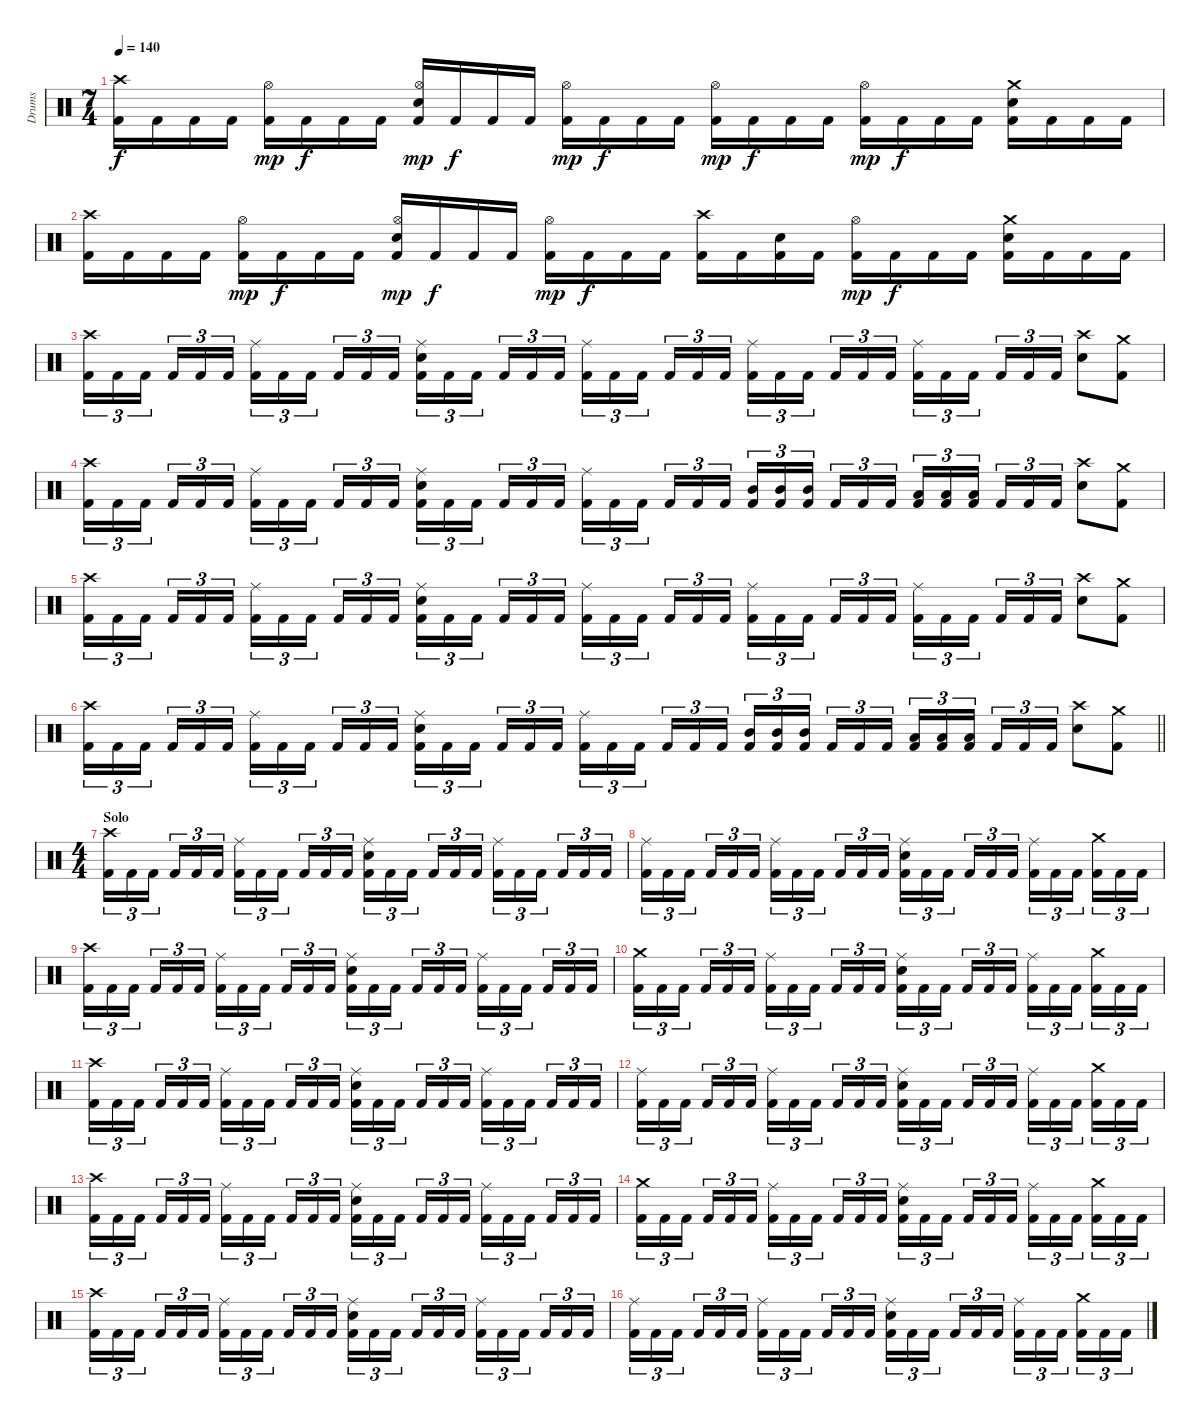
\track ("Drums" "Drums") {instrument percussion}
\staff {score}
\articulation defaults
\ts (7 4)
\tempo 140
\clef neutral
\ks c
("Crash high (hit)" "Kick (hit) 2").16{dy f} "Kick (hit) 2".16 "Kick (hit) 2".16 "Kick (hit) 2".16 ("Hi-Hat (open)" "Kick (hit) 2").16{dy mp} "Kick (hit) 2".16{dy f} "Kick (hit) 2".16 "Kick (hit) 2".16 ("Hi-Hat (open)" "Snare (hit) 2" "Kick (hit) 2").16{dy mp} "Kick (hit) 2".16{dy f} "Kick (hit) 2".16 "Kick (hit) 2".16 ("Hi-Hat (open)" "Kick (hit) 2").16{dy mp} "Kick (hit) 2".16{dy f} "Kick (hit) 2".16 "Kick (hit) 2".16 ("Hi-Hat (open)" "Kick (hit) 2").16{dy mp} "Kick (hit) 2".16{dy f} "Kick (hit) 2".16 "Kick (hit) 2".16 ("Hi-Hat (open)" "Kick (hit) 2").16{dy mp} "Kick (hit) 2".16{dy f} "Kick (hit) 2".16 "Kick (hit) 2".16 ("Crash medium (hit)" "Snare (hit) 2" "Kick (hit) 2").16 "Kick (hit) 2".16 "Kick (hit) 2".16 "Kick (hit) 2".16 |
("Crash high (hit)" "Kick (hit) 2").16 "Kick (hit) 2".16 "Kick (hit) 2".16 "Kick (hit) 2".16 ("Hi-Hat (open)" "Kick (hit) 2").16{dy mp} "Kick (hit) 2".16{dy f} "Kick (hit) 2".16 "Kick (hit) 2".16 ("Hi-Hat (open)" "Snare (hit) 2" "Kick (hit) 2").16{dy mp} "Kick (hit) 2".16{dy f} "Kick (hit) 2".16 "Kick (hit) 2".16 ("Hi-Hat (open)" "Kick (hit) 2").16{dy mp} "Kick (hit) 2".16{dy f} "Kick (hit) 2".16 "Kick (hit) 2".16 ("Crash high (hit)" "Kick (hit) 2").16 "Kick (hit) 2".16 ("Snare (hit) 2" "Kick (hit) 2").16 "Kick (hit) 2".16 ("Hi-Hat (open)" "Kick (hit) 2").16{dy mp} "Kick (hit) 2".16{dy f} "Kick (hit) 2".16 "Kick (hit) 2".16 ("Crash medium (hit)" "Snare (hit) 2" "Kick (hit) 2").16 "Kick (hit) 2".16 "Kick (hit) 2".16 "Kick (hit) 2".16 |
("Crash high (hit)" "Kick (hit) 2").16{tu (3 2)} "Kick (hit) 2".16{tu (3 2)} "Kick (hit) 2".16{tu (3 2) beam splitsecondary} "Kick (hit) 2".16{tu (3 2)} "Kick (hit) 2".16{tu (3 2)} "Kick (hit) 2".16{tu (3 2)} ("Ride (middle)" "Kick (hit) 2").16{tu (3 2)} "Kick (hit) 2".16{tu (3 2)} "Kick (hit) 2".16{tu (3 2) beam splitsecondary} "Kick (hit) 2".16{tu (3 2)} "Kick (hit) 2".16{tu (3 2)} "Kick (hit) 2".16{tu (3 2)} ("Ride (middle)" "Snare (hit) 2" "Kick (hit) 2").16{tu (3 2)} "Kick (hit) 2".16{tu (3 2)} "Kick (hit) 2".16{tu (3 2) beam splitsecondary} "Kick (hit) 2".16{tu (3 2)} "Kick (hit) 2".16{tu (3 2)} "Kick (hit) 2".16{tu (3 2)} ("Ride (middle)" "Kick (hit) 2").16{tu (3 2)} "Kick (hit) 2".16{tu (3 2)} "Kick (hit) 2".16{tu (3 2) beam splitsecondary} "Kick (hit) 2".16{tu (3 2)} "Kick (hit) 2".16{tu (3 2)} "Kick (hit) 2".16{tu (3 2)} ("Ride (middle)" "Kick (hit) 2").16{tu (3 2)} "Kick (hit) 2".16{tu (3 2)} "Kick (hit) 2".16{tu (3 2) beam splitsecondary} "Kick (hit) 2".16{tu (3 2)} "Kick (hit) 2".16{tu (3 2)} "Kick (hit) 2".16{tu (3 2)} ("Ride (middle)" "Kick (hit) 2").16{tu (3 2)} "Kick (hit) 2".16{tu (3 2)} "Kick (hit) 2".16{tu (3 2) beam splitsecondary} "Kick (hit) 2".16{tu (3 2)} "Kick (hit) 2".16{tu (3 2)} "Kick (hit) 2".16{tu (3 2)} ("Crash high (hit)" "Snare (hit) 2").8 ("Crash medium (hit)" "Kick (hit) 2").8 |
("Crash high (hit)" "Kick (hit) 2").16{tu (3 2)} "Kick (hit) 2".16{tu (3 2)} "Kick (hit) 2".16{tu (3 2) beam splitsecondary} "Kick (hit) 2".16{tu (3 2)} "Kick (hit) 2".16{tu (3 2)} "Kick (hit) 2".16{tu (3 2)} ("Ride (middle)" "Kick (hit) 2").16{tu (3 2)} "Kick (hit) 2".16{tu (3 2)} "Kick (hit) 2".16{tu (3 2) beam splitsecondary} "Kick (hit) 2".16{tu (3 2)} "Kick (hit) 2".16{tu (3 2)} "Kick (hit) 2".16{tu (3 2)} ("Ride (middle)" "Snare (hit) 2" "Kick (hit) 2").16{tu (3 2)} "Kick (hit) 2".16{tu (3 2)} "Kick (hit) 2".16{tu (3 2) beam splitsecondary} "Kick (hit) 2".16{tu (3 2)} "Kick (hit) 2".16{tu (3 2)} "Kick (hit) 2".16{tu (3 2)} ("Ride (middle)" "Kick (hit) 2").16{tu (3 2)} "Kick (hit) 2".16{tu (3 2)} "Kick (hit) 2".16{tu (3 2) beam splitsecondary} "Kick (hit) 2".16{tu (3 2)} "Kick (hit) 2".16{tu (3 2)} "Kick (hit) 2".16{tu (3 2)} ("Mid Tom (hit)" "Kick (hit) 2").16{tu (3 2)} ("Mid Tom (hit)" "Kick (hit) 2").16{tu (3 2)} ("Mid Tom (hit)" "Kick (hit) 2").16{tu (3 2) beam splitsecondary} "Kick (hit) 2".16{tu (3 2)} "Kick (hit) 2".16{tu (3 2)} "Kick (hit) 2".16{tu (3 2)} ("Low Tom (hit)" "Kick (hit) 2").16{tu (3 2)} ("Low Tom (hit)" "Kick (hit) 2").16{tu (3 2)} ("Low Tom (hit)" "Kick (hit) 2").16{tu (3 2) beam splitsecondary} "Kick (hit) 2".16{tu (3 2)} "Kick (hit) 2".16{tu (3 2)} "Kick (hit) 2".16{tu (3 2)} ("Crash high (hit)" "Snare (hit) 2").8 ("Crash medium (hit)" "Kick (hit) 2").8 |
("Crash high (hit)" "Kick (hit) 2").16{tu (3 2)} "Kick (hit) 2".16{tu (3 2)} "Kick (hit) 2".16{tu (3 2) beam splitsecondary} "Kick (hit) 2".16{tu (3 2)} "Kick (hit) 2".16{tu (3 2)} "Kick (hit) 2".16{tu (3 2)} ("Ride (middle)" "Kick (hit) 2").16{tu (3 2)} "Kick (hit) 2".16{tu (3 2)} "Kick (hit) 2".16{tu (3 2) beam splitsecondary} "Kick (hit) 2".16{tu (3 2)} "Kick (hit) 2".16{tu (3 2)} "Kick (hit) 2".16{tu (3 2)} ("Ride (middle)" "Snare (hit) 2" "Kick (hit) 2").16{tu (3 2)} "Kick (hit) 2".16{tu (3 2)} "Kick (hit) 2".16{tu (3 2) beam splitsecondary} "Kick (hit) 2".16{tu (3 2)} "Kick (hit) 2".16{tu (3 2)} "Kick (hit) 2".16{tu (3 2)} ("Ride (middle)" "Kick (hit) 2").16{tu (3 2)} "Kick (hit) 2".16{tu (3 2)} "Kick (hit) 2".16{tu (3 2) beam splitsecondary} "Kick (hit) 2".16{tu (3 2)} "Kick (hit) 2".16{tu (3 2)} "Kick (hit) 2".16{tu (3 2)} ("Ride (middle)" "Kick (hit) 2").16{tu (3 2)} "Kick (hit) 2".16{tu (3 2)} "Kick (hit) 2".16{tu (3 2) beam splitsecondary} "Kick (hit) 2".16{tu (3 2)} "Kick (hit) 2".16{tu (3 2)} "Kick (hit) 2".16{tu (3 2)} ("Ride (middle)" "Kick (hit) 2").16{tu (3 2)} "Kick (hit) 2".16{tu (3 2)} "Kick (hit) 2".16{tu (3 2) beam splitsecondary} "Kick (hit) 2".16{tu (3 2)} "Kick (hit) 2".16{tu (3 2)} "Kick (hit) 2".16{tu (3 2)} ("Crash high (hit)" "Snare (hit) 2").8 ("Crash medium (hit)" "Kick (hit) 2").8 |
\barLineRight lightlight
("Crash high (hit)" "Kick (hit) 2").16{tu (3 2)} "Kick (hit) 2".16{tu (3 2)} "Kick (hit) 2".16{tu (3 2) beam splitsecondary} "Kick (hit) 2".16{tu (3 2)} "Kick (hit) 2".16{tu (3 2)} "Kick (hit) 2".16{tu (3 2)} ("Ride (middle)" "Kick (hit) 2").16{tu (3 2)} "Kick (hit) 2".16{tu (3 2)} "Kick (hit) 2".16{tu (3 2) beam splitsecondary} "Kick (hit) 2".16{tu (3 2)} "Kick (hit) 2".16{tu (3 2)} "Kick (hit) 2".16{tu (3 2)} ("Ride (middle)" "Snare (hit) 2" "Kick (hit) 2").16{tu (3 2)} "Kick (hit) 2".16{tu (3 2)} "Kick (hit) 2".16{tu (3 2) beam splitsecondary} "Kick (hit) 2".16{tu (3 2)} "Kick (hit) 2".16{tu (3 2)} "Kick (hit) 2".16{tu (3 2)} ("Ride (middle)" "Kick (hit) 2").16{tu (3 2)} "Kick (hit) 2".16{tu (3 2)} "Kick (hit) 2".16{tu (3 2) beam splitsecondary} "Kick (hit) 2".16{tu (3 2)} "Kick (hit) 2".16{tu (3 2)} "Kick (hit) 2".16{tu (3 2)} ("Mid Tom (hit)" "Kick (hit) 2").16{tu (3 2)} ("Mid Tom (hit)" "Kick (hit) 2").16{tu (3 2)} ("Mid Tom (hit)" "Kick (hit) 2").16{tu (3 2) beam splitsecondary} "Kick (hit) 2".16{tu (3 2)} "Kick (hit) 2".16{tu (3 2)} "Kick (hit) 2".16{tu (3 2)} ("Low Tom (hit)" "Kick (hit) 2").16{tu (3 2)} ("Low Tom (hit)" "Kick (hit) 2").16{tu (3 2)} ("Low Tom (hit)" "Kick (hit) 2").16{tu (3 2) beam splitsecondary} "Kick (hit) 2".16{tu (3 2)} "Kick (hit) 2".16{tu (3 2)} "Kick (hit) 2".16{tu (3 2)} ("Crash high (hit)" "Snare (hit) 2").8 ("Crash medium (hit)" "Kick (hit) 2").8 |
\ts (4 4)
\section ("" "Solo")
("Crash high (hit)" "Kick (hit) 2").16{tu (3 2)} "Kick (hit) 2".16{tu (3 2)} "Kick (hit) 2".16{tu (3 2) beam splitsecondary} "Kick (hit) 2".16{tu (3 2)} "Kick (hit) 2".16{tu (3 2)} "Kick (hit) 2".16{tu (3 2)} ("Ride (middle)" "Kick (hit) 2").16{tu (3 2)} "Kick (hit) 2".16{tu (3 2)} "Kick (hit) 2".16{tu (3 2) beam splitsecondary} "Kick (hit) 2".16{tu (3 2)} "Kick (hit) 2".16{tu (3 2)} "Kick (hit) 2".16{tu (3 2)} ("Ride (middle)" "Snare (hit) 2" "Kick (hit) 2").16{tu (3 2)} "Kick (hit) 2".16{tu (3 2)} "Kick (hit) 2".16{tu (3 2) beam splitsecondary} "Kick (hit) 2".16{tu (3 2)} "Kick (hit) 2".16{tu (3 2)} "Kick (hit) 2".16{tu (3 2)} ("Ride (middle)" "Kick (hit) 2").16{tu (3 2)} "Kick (hit) 2".16{tu (3 2)} "Kick (hit) 2".16{tu (3 2) beam splitsecondary} "Kick (hit) 2".16{tu (3 2)} "Kick (hit) 2".16{tu (3 2)} "Kick (hit) 2".16{tu (3 2)} |
("Ride (middle)" "Kick (hit) 2").16{tu (3 2)} "Kick (hit) 2".16{tu (3 2)} "Kick (hit) 2".16{tu (3 2) beam splitsecondary} "Kick (hit) 2".16{tu (3 2)} "Kick (hit) 2".16{tu (3 2)} "Kick (hit) 2".16{tu (3 2)} ("Ride (middle)" "Kick (hit) 2").16{tu (3 2)} "Kick (hit) 2".16{tu (3 2)} "Kick (hit) 2".16{tu (3 2) beam splitsecondary} "Kick (hit) 2".16{tu (3 2)} "Kick (hit) 2".16{tu (3 2)} "Kick (hit) 2".16{tu (3 2)} ("Ride (middle)" "Snare (hit) 2" "Kick (hit) 2").16{tu (3 2)} "Kick (hit) 2".16{tu (3 2)} "Kick (hit) 2".16{tu (3 2) beam splitsecondary} "Kick (hit) 2".16{tu (3 2)} "Kick (hit) 2".16{tu (3 2)} "Kick (hit) 2".16{tu (3 2)} ("Ride (middle)" "Kick (hit) 2").16{tu (3 2)} "Kick (hit) 2".16{tu (3 2)} "Kick (hit) 2".16{tu (3 2) beam splitsecondary} ("Crash medium (hit)" "Kick (hit) 2").16{tu (3 2)} "Kick (hit) 2".16{tu (3 2)} "Kick (hit) 2".16{tu (3 2)} |
("Crash high (hit)" "Kick (hit) 2").16{tu (3 2)} "Kick (hit) 2".16{tu (3 2)} "Kick (hit) 2".16{tu (3 2) beam splitsecondary} "Kick (hit) 2".16{tu (3 2)} "Kick (hit) 2".16{tu (3 2)} "Kick (hit) 2".16{tu (3 2)} ("Ride (middle)" "Kick (hit) 2").16{tu (3 2)} "Kick (hit) 2".16{tu (3 2)} "Kick (hit) 2".16{tu (3 2) beam splitsecondary} "Kick (hit) 2".16{tu (3 2)} "Kick (hit) 2".16{tu (3 2)} "Kick (hit) 2".16{tu (3 2)} ("Ride (middle)" "Snare (hit) 2" "Kick (hit) 2").16{tu (3 2)} "Kick (hit) 2".16{tu (3 2)} "Kick (hit) 2".16{tu (3 2) beam splitsecondary} "Kick (hit) 2".16{tu (3 2)} "Kick (hit) 2".16{tu (3 2)} "Kick (hit) 2".16{tu (3 2)} ("Ride (middle)" "Kick (hit) 2").16{tu (3 2)} "Kick (hit) 2".16{tu (3 2)} "Kick (hit) 2".16{tu (3 2) beam splitsecondary} "Kick (hit) 2".16{tu (3 2)} "Kick (hit) 2".16{tu (3 2)} "Kick (hit) 2".16{tu (3 2)} |
("Crash medium (hit)" "Kick (hit) 2").16{tu (3 2)} "Kick (hit) 2".16{tu (3 2)} "Kick (hit) 2".16{tu (3 2) beam splitsecondary} "Kick (hit) 2".16{tu (3 2)} "Kick (hit) 2".16{tu (3 2)} "Kick (hit) 2".16{tu (3 2)} ("Ride (middle)" "Kick (hit) 2").16{tu (3 2)} "Kick (hit) 2".16{tu (3 2)} "Kick (hit) 2".16{tu (3 2) beam splitsecondary} "Kick (hit) 2".16{tu (3 2)} "Kick (hit) 2".16{tu (3 2)} "Kick (hit) 2".16{tu (3 2)} ("Ride (middle)" "Snare (hit) 2" "Kick (hit) 2").16{tu (3 2)} "Kick (hit) 2".16{tu (3 2)} "Kick (hit) 2".16{tu (3 2) beam splitsecondary} "Kick (hit) 2".16{tu (3 2)} "Kick (hit) 2".16{tu (3 2)} "Kick (hit) 2".16{tu (3 2)} ("Ride (middle)" "Kick (hit) 2").16{tu (3 2)} "Kick (hit) 2".16{tu (3 2)} "Kick (hit) 2".16{tu (3 2) beam splitsecondary} ("Crash medium (hit)" "Kick (hit) 2").16{tu (3 2)} "Kick (hit) 2".16{tu (3 2)} "Kick (hit) 2".16{tu (3 2)} |
("Crash high (hit)" "Kick (hit) 2").16{tu (3 2)} "Kick (hit) 2".16{tu (3 2)} "Kick (hit) 2".16{tu (3 2) beam splitsecondary} "Kick (hit) 2".16{tu (3 2)} "Kick (hit) 2".16{tu (3 2)} "Kick (hit) 2".16{tu (3 2)} ("Ride (middle)" "Kick (hit) 2").16{tu (3 2)} "Kick (hit) 2".16{tu (3 2)} "Kick (hit) 2".16{tu (3 2) beam splitsecondary} "Kick (hit) 2".16{tu (3 2)} "Kick (hit) 2".16{tu (3 2)} "Kick (hit) 2".16{tu (3 2)} ("Ride (middle)" "Snare (hit) 2" "Kick (hit) 2").16{tu (3 2)} "Kick (hit) 2".16{tu (3 2)} "Kick (hit) 2".16{tu (3 2) beam splitsecondary} "Kick (hit) 2".16{tu (3 2)} "Kick (hit) 2".16{tu (3 2)} "Kick (hit) 2".16{tu (3 2)} ("Ride (middle)" "Kick (hit) 2").16{tu (3 2)} "Kick (hit) 2".16{tu (3 2)} "Kick (hit) 2".16{tu (3 2) beam splitsecondary} "Kick (hit) 2".16{tu (3 2)} "Kick (hit) 2".16{tu (3 2)} "Kick (hit) 2".16{tu (3 2)} |
("Ride (middle)" "Kick (hit) 2").16{tu (3 2)} "Kick (hit) 2".16{tu (3 2)} "Kick (hit) 2".16{tu (3 2) beam splitsecondary} "Kick (hit) 2".16{tu (3 2)} "Kick (hit) 2".16{tu (3 2)} "Kick (hit) 2".16{tu (3 2)} ("Ride (middle)" "Kick (hit) 2").16{tu (3 2)} "Kick (hit) 2".16{tu (3 2)} "Kick (hit) 2".16{tu (3 2) beam splitsecondary} "Kick (hit) 2".16{tu (3 2)} "Kick (hit) 2".16{tu (3 2)} "Kick (hit) 2".16{tu (3 2)} ("Ride (middle)" "Snare (hit) 2" "Kick (hit) 2").16{tu (3 2)} "Kick (hit) 2".16{tu (3 2)} "Kick (hit) 2".16{tu (3 2) beam splitsecondary} "Kick (hit) 2".16{tu (3 2)} "Kick (hit) 2".16{tu (3 2)} "Kick (hit) 2".16{tu (3 2)} ("Ride (middle)" "Kick (hit) 2").16{tu (3 2)} "Kick (hit) 2".16{tu (3 2)} "Kick (hit) 2".16{tu (3 2) beam splitsecondary} ("Crash medium (hit)" "Kick (hit) 2").16{tu (3 2)} "Kick (hit) 2".16{tu (3 2)} "Kick (hit) 2".16{tu (3 2)} |
("Crash high (hit)" "Kick (hit) 2").16{tu (3 2)} "Kick (hit) 2".16{tu (3 2)} "Kick (hit) 2".16{tu (3 2) beam splitsecondary} "Kick (hit) 2".16{tu (3 2)} "Kick (hit) 2".16{tu (3 2)} "Kick (hit) 2".16{tu (3 2)} ("Ride (middle)" "Kick (hit) 2").16{tu (3 2)} "Kick (hit) 2".16{tu (3 2)} "Kick (hit) 2".16{tu (3 2) beam splitsecondary} "Kick (hit) 2".16{tu (3 2)} "Kick (hit) 2".16{tu (3 2)} "Kick (hit) 2".16{tu (3 2)} ("Ride (middle)" "Snare (hit) 2" "Kick (hit) 2").16{tu (3 2)} "Kick (hit) 2".16{tu (3 2)} "Kick (hit) 2".16{tu (3 2) beam splitsecondary} "Kick (hit) 2".16{tu (3 2)} "Kick (hit) 2".16{tu (3 2)} "Kick (hit) 2".16{tu (3 2)} ("Ride (middle)" "Kick (hit) 2").16{tu (3 2)} "Kick (hit) 2".16{tu (3 2)} "Kick (hit) 2".16{tu (3 2) beam splitsecondary} "Kick (hit) 2".16{tu (3 2)} "Kick (hit) 2".16{tu (3 2)} "Kick (hit) 2".16{tu (3 2)} |
("Crash medium (hit)" "Kick (hit) 2").16{tu (3 2)} "Kick (hit) 2".16{tu (3 2)} "Kick (hit) 2".16{tu (3 2) beam splitsecondary} "Kick (hit) 2".16{tu (3 2)} "Kick (hit) 2".16{tu (3 2)} "Kick (hit) 2".16{tu (3 2)} ("Ride (middle)" "Kick (hit) 2").16{tu (3 2)} "Kick (hit) 2".16{tu (3 2)} "Kick (hit) 2".16{tu (3 2) beam splitsecondary} "Kick (hit) 2".16{tu (3 2)} "Kick (hit) 2".16{tu (3 2)} "Kick (hit) 2".16{tu (3 2)} ("Ride (middle)" "Snare (hit) 2" "Kick (hit) 2").16{tu (3 2)} "Kick (hit) 2".16{tu (3 2)} "Kick (hit) 2".16{tu (3 2) beam splitsecondary} "Kick (hit) 2".16{tu (3 2)} "Kick (hit) 2".16{tu (3 2)} "Kick (hit) 2".16{tu (3 2)} ("Ride (middle)" "Kick (hit) 2").16{tu (3 2)} "Kick (hit) 2".16{tu (3 2)} "Kick (hit) 2".16{tu (3 2) beam splitsecondary} ("Crash medium (hit)" "Kick (hit) 2").16{tu (3 2)} "Kick (hit) 2".16{tu (3 2)} "Kick (hit) 2".16{tu (3 2)} |
("Crash high (hit)" "Kick (hit) 2").16{tu (3 2)} "Kick (hit) 2".16{tu (3 2)} "Kick (hit) 2".16{tu (3 2) beam splitsecondary} "Kick (hit) 2".16{tu (3 2)} "Kick (hit) 2".16{tu (3 2)} "Kick (hit) 2".16{tu (3 2)} ("Ride (middle)" "Kick (hit) 2").16{tu (3 2)} "Kick (hit) 2".16{tu (3 2)} "Kick (hit) 2".16{tu (3 2) beam splitsecondary} "Kick (hit) 2".16{tu (3 2)} "Kick (hit) 2".16{tu (3 2)} "Kick (hit) 2".16{tu (3 2)} ("Ride (middle)" "Snare (hit) 2" "Kick (hit) 2").16{tu (3 2)} "Kick (hit) 2".16{tu (3 2)} "Kick (hit) 2".16{tu (3 2) beam splitsecondary} "Kick (hit) 2".16{tu (3 2)} "Kick (hit) 2".16{tu (3 2)} "Kick (hit) 2".16{tu (3 2)} ("Ride (middle)" "Kick (hit) 2").16{tu (3 2)} "Kick (hit) 2".16{tu (3 2)} "Kick (hit) 2".16{tu (3 2) beam splitsecondary} "Kick (hit) 2".16{tu (3 2)} "Kick (hit) 2".16{tu (3 2)} "Kick (hit) 2".16{tu (3 2)} |
("Ride (middle)" "Kick (hit) 2").16{tu (3 2)} "Kick (hit) 2".16{tu (3 2)} "Kick (hit) 2".16{tu (3 2) beam splitsecondary} "Kick (hit) 2".16{tu (3 2)} "Kick (hit) 2".16{tu (3 2)} "Kick (hit) 2".16{tu (3 2)} ("Ride (middle)" "Kick (hit) 2").16{tu (3 2)} "Kick (hit) 2".16{tu (3 2)} "Kick (hit) 2".16{tu (3 2) beam splitsecondary} "Kick (hit) 2".16{tu (3 2)} "Kick (hit) 2".16{tu (3 2)} "Kick (hit) 2".16{tu (3 2)} ("Ride (middle)" "Snare (hit) 2" "Kick (hit) 2").16{tu (3 2)} "Kick (hit) 2".16{tu (3 2)} "Kick (hit) 2".16{tu (3 2) beam splitsecondary} "Kick (hit) 2".16{tu (3 2)} "Kick (hit) 2".16{tu (3 2)} "Kick (hit) 2".16{tu (3 2)} ("Ride (middle)" "Kick (hit) 2").16{tu (3 2)} "Kick (hit) 2".16{tu (3 2)} "Kick (hit) 2".16{tu (3 2) beam splitsecondary} ("Crash medium (hit)" "Kick (hit) 2").16{tu (3 2)} "Kick (hit) 2".16{tu (3 2)} "Kick (hit) 2".16{tu (3 2)}
